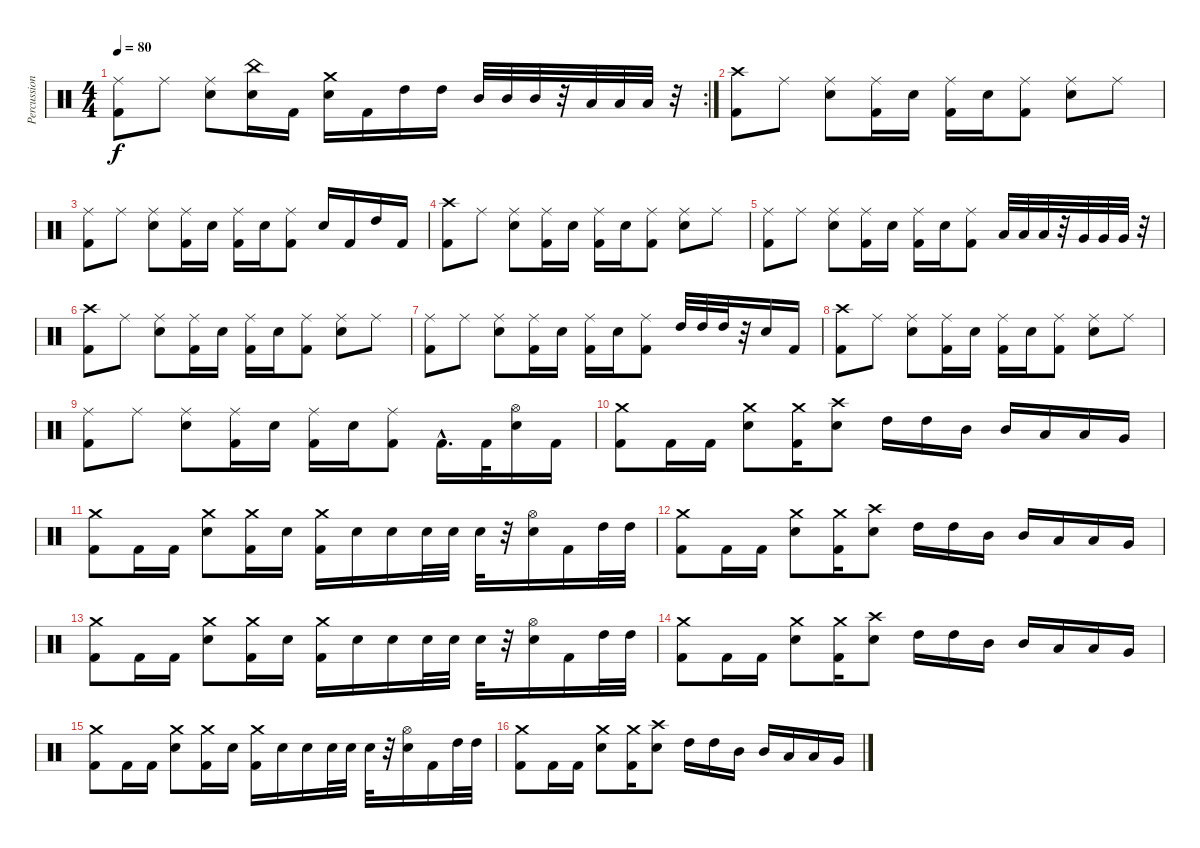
\track ("Percussion" "Percussion") {instrument percussion}
\staff {score}
\articulation defaults
\rc 2
\ts (4 4)
\tempo 80
\clef neutral
\ks c
("Ride (middle)" "Kick (hit) 2").8{dy f} "Ride (middle)".8 ("Ride (middle)" "Electric Snare (hit)").8 ("China (hit)" "Electric Snare (hit)").16 "Kick (hit) 2".16 ("Crash medium (hit)" "Electric Snare (hit)").16 "Kick (hit) 2".16 "High Tom (hit)".16 "High Tom (hit)".16 "Mid Tom (hit)".32 "Mid Tom (hit)".32 "Mid Tom (hit)".32 r.32 "Low Tom (hit)".32 "Low Tom (hit)".32 "Low Tom (hit)".32 r.32 |
("Crash high (hit)" "Kick (hit) 2").8 "Ride (middle)".8 ("Ride (middle)" "Electric Snare (hit)").8 ("Ride (middle)" "Kick (hit) 2").16 "Electric Snare (hit)".16 ("Ride (middle)" "Kick (hit) 2").16 "Electric Snare (hit)".16 ("Ride (middle)" "Kick (hit) 2").8 ("Ride (middle)" "Electric Snare (hit)").8 "Ride (middle)".8 |
("Ride (middle)" "Kick (hit) 2").8 "Ride (middle)".8 ("Ride (middle)" "Electric Snare (hit)").8 ("Ride (middle)" "Kick (hit) 2").16 "Electric Snare (hit)".16 ("Ride (middle)" "Kick (hit) 2").16 "Electric Snare (hit)".16 ("Ride (middle)" "Kick (hit) 2").8 "Electric Snare (hit)".16 "Kick (hit) 2".16 "High Tom (hit)".16 "Kick (hit) 2".16 |
("Crash high (hit)" "Kick (hit) 2").8 "Ride (middle)".8 ("Ride (middle)" "Electric Snare (hit)").8 ("Ride (middle)" "Kick (hit) 2").16 "Electric Snare (hit)".16 ("Ride (middle)" "Kick (hit) 2").16 "Electric Snare (hit)".16 ("Ride (middle)" "Kick (hit) 2").8 ("Ride (middle)" "Electric Snare (hit)").8 "Ride (middle)".8 |
("Ride (middle)" "Kick (hit) 2").8 "Ride (middle)".8 ("Ride (middle)" "Electric Snare (hit)").8 ("Ride (middle)" "Kick (hit) 2").16 "Electric Snare (hit)".16 ("Ride (middle)" "Kick (hit) 2").16 "Electric Snare (hit)".16 ("Ride (middle)" "Kick (hit) 2").8 "Low Tom (hit)".32 "Low Tom (hit)".32 "Low Tom (hit)".32 r.32 "Very Low Tom (hit)".32 "Very Low Tom (hit)".32 "Very Low Tom (hit)".32 r.32 |
("Crash high (hit)" "Kick (hit) 2").8 "Ride (middle)".8 ("Ride (middle)" "Electric Snare (hit)").8 ("Ride (middle)" "Kick (hit) 2").16 "Electric Snare (hit)".16 ("Ride (middle)" "Kick (hit) 2").16 "Electric Snare (hit)".16 ("Ride (middle)" "Kick (hit) 2").8 ("Ride (middle)" "Electric Snare (hit)").8 "Ride (middle)".8 |
("Ride (middle)" "Kick (hit) 2").8 "Ride (middle)".8 ("Ride (middle)" "Electric Snare (hit)").8 ("Ride (middle)" "Kick (hit) 2").16 "Electric Snare (hit)".16 ("Ride (middle)" "Kick (hit) 2").16 "Electric Snare (hit)".16 ("Ride (middle)" "Kick (hit) 2").8 "High Tom (hit)".32 "High Tom (hit)".32 "High Tom (hit)".32 r.32 "Electric Snare (hit)".16 "Kick (hit) 2".16 |
("Crash high (hit)" "Kick (hit) 2").8 "Ride (middle)".8 ("Ride (middle)" "Electric Snare (hit)").8 ("Ride (middle)" "Kick (hit) 2").16 "Electric Snare (hit)".16 ("Ride (middle)" "Kick (hit) 2").16 "Electric Snare (hit)".16 ("Ride (middle)" "Kick (hit) 2").8 ("Ride (middle)" "Electric Snare (hit)").8 "Ride (middle)".8 |
("Ride (middle)" "Kick (hit) 2").8 "Ride (middle)".8 ("Ride (middle)" "Electric Snare (hit)").8 ("Ride (middle)" "Kick (hit) 2").16 "Electric Snare (hit)".16 ("Ride (middle)" "Kick (hit) 2").16 "Electric Snare (hit)".16 ("Ride (middle)" "Kick (hit) 2").8 "Kick (hit) 2"{hac}.16{d} "Kick (hit) 2".32 ("Hi-Hat (open)" "Electric Snare (hit)").16 "Kick (hit) 2".16 |
("Crash medium (hit)" "Kick (hit) 2").8{volume 9} "Kick (hit) 2".16 "Kick (hit) 2".16 ("Crash medium (hit)" "Electric Snare (hit)").8 ("Crash medium (hit)" "Kick (hit) 2").16 ("Crash high (hit)" "Electric Snare (hit)").8 "High Tom (hit)".16 "High Tom (hit)".16 "Mid Tom (hit)".16 "Mid Tom (hit)".16 "Low Tom (hit)".16 "Low Tom (hit)".16 "Very Low Tom (hit)".16 |
("Crash medium (hit)" "Kick (hit) 2").8 "Kick (hit) 2".16 "Kick (hit) 2".16 ("Crash medium (hit)" "Electric Snare (hit)").8 ("Crash medium (hit)" "Kick (hit) 2").16 "Electric Snare (hit)".16 ("Crash medium (hit)" "Kick (hit) 2").16 "Electric Snare (hit)".16 "Electric Snare (hit)".16 "Electric Snare (hit)".32 "Electric Snare (hit)".32 "Electric Snare (hit)".32 r.32 ("Hi-Hat (open)" "Electric Snare (hit)").16 "Kick (hit) 2".16 "High Tom (hit)".32 "High Tom (hit)".32 |
("Crash medium (hit)" "Kick (hit) 2").8 "Kick (hit) 2".16 "Kick (hit) 2".16 ("Crash medium (hit)" "Electric Snare (hit)").8 ("Crash medium (hit)" "Kick (hit) 2").16 ("Crash high (hit)" "Electric Snare (hit)").8 "High Tom (hit)".16 "High Tom (hit)".16 "Mid Tom (hit)".16 "Mid Tom (hit)".16 "Low Tom (hit)".16 "Low Tom (hit)".16 "Very Low Tom (hit)".16 |
("Crash medium (hit)" "Kick (hit) 2").8 "Kick (hit) 2".16 "Kick (hit) 2".16 ("Crash medium (hit)" "Electric Snare (hit)").8 ("Crash medium (hit)" "Kick (hit) 2").16 "Electric Snare (hit)".16 ("Crash medium (hit)" "Kick (hit) 2").16 "Electric Snare (hit)".16 "Electric Snare (hit)".16 "Electric Snare (hit)".32 "Electric Snare (hit)".32 "Electric Snare (hit)".32 r.32 ("Hi-Hat (open)" "Electric Snare (hit)").16 "Kick (hit) 2".16 "High Tom (hit)".32 "High Tom (hit)".32 |
("Crash medium (hit)" "Kick (hit) 2").8 "Kick (hit) 2".16 "Kick (hit) 2".16 ("Crash medium (hit)" "Electric Snare (hit)").8 ("Crash medium (hit)" "Kick (hit) 2").16 ("Crash high (hit)" "Electric Snare (hit)").8 "High Tom (hit)".16 "High Tom (hit)".16 "Mid Tom (hit)".16 "Mid Tom (hit)".16 "Low Tom (hit)".16 "Low Tom (hit)".16 "Very Low Tom (hit)".16 |
("Crash medium (hit)" "Kick (hit) 2").8 "Kick (hit) 2".16 "Kick (hit) 2".16 ("Crash medium (hit)" "Electric Snare (hit)").8 ("Crash medium (hit)" "Kick (hit) 2").16 "Electric Snare (hit)".16 ("Crash medium (hit)" "Kick (hit) 2").16 "Electric Snare (hit)".16 "Electric Snare (hit)".16 "Electric Snare (hit)".32 "Electric Snare (hit)".32 "Electric Snare (hit)".32 r.32 ("Hi-Hat (open)" "Electric Snare (hit)").16 "Kick (hit) 2".16 "High Tom (hit)".32 "High Tom (hit)".32 |
("Crash medium (hit)" "Kick (hit) 2").8 "Kick (hit) 2".16 "Kick (hit) 2".16 ("Crash medium (hit)" "Electric Snare (hit)").8 ("Crash medium (hit)" "Kick (hit) 2").16 ("Crash high (hit)" "Electric Snare (hit)").8 "High Tom (hit)".16 "High Tom (hit)".16 "Mid Tom (hit)".16 "Mid Tom (hit)".16 "Low Tom (hit)".16 "Low Tom (hit)".16 "Very Low Tom (hit)".16
